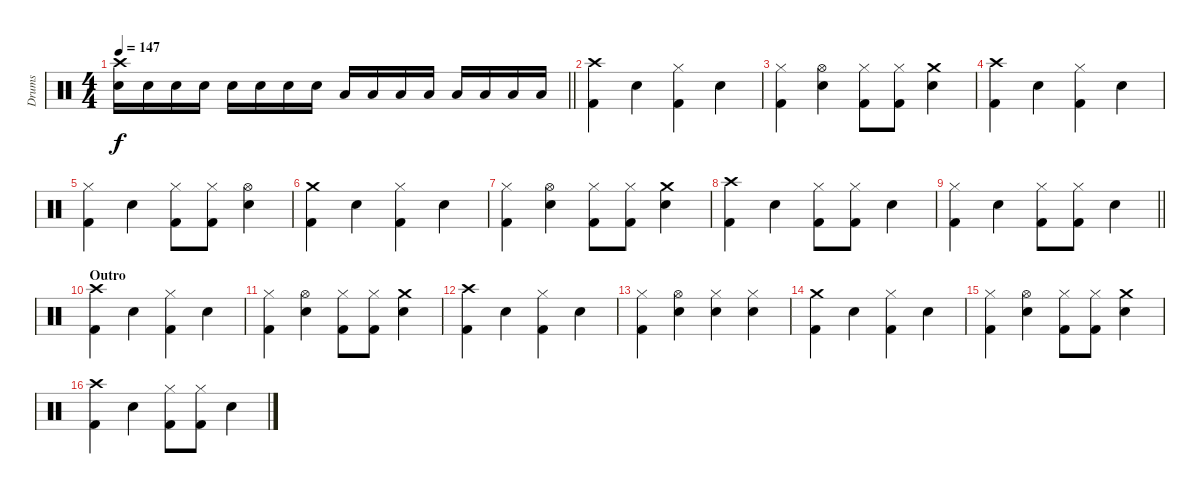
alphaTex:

\track ("Drums" "Drums") {instrument percussion}
\staff {score}
\articulation defaults
\ts (4 4)
\tempo 147
\clef neutral
\barLineRight lightlight
\ks c
("Crash high (hit)" "Snare (hit) 2").16{dy f} "Snare (hit) 2".16 "Snare (hit) 2".16 "Snare (hit) 2".16 "Snare (hit) 2".16 "Snare (hit) 2".16 "Snare (hit) 2".16 "Snare (hit) 2".16 "Low Floor Tom (hit)".16 "Low Floor Tom (hit)".16 "Low Floor Tom (hit)".16 "Low Floor Tom (hit)".16 "Low Tom (hit)".16 "Low Tom (hit)".16 "Low Tom (hit)".16 "Low Tom (hit)".16 |
("Crash high (hit)" "Kick (hit) 2").4 "Electric Snare (hit)".4 ("Hi-Hat (closed)" "Kick (hit) 2").4 "Electric Snare (hit)".4 |
("Hi-Hat (closed)" "Kick (hit) 2").4 ("Hi-Hat (open)" "Electric Snare (hit)").4 ("Hi-Hat (closed)" "Kick (hit) 2").8 ("Hi-Hat (closed)" "Kick (hit) 2").8 ("Crash medium (hit)" "Electric Snare (hit)").4 |
("Crash high (hit)" "Kick (hit) 2").4 "Electric Snare (hit)".4 ("Hi-Hat (closed)" "Kick (hit) 2").4 "Electric Snare (hit)".4 |
("Hi-Hat (closed)" "Kick (hit) 2").4 "Electric Snare (hit)".4 ("Hi-Hat (closed)" "Kick (hit) 2").8 ("Hi-Hat (closed)" "Kick (hit) 2").8 ("Hi-Hat (open)" "Electric Snare (hit)").4 |
("Crash medium (hit)" "Kick (hit) 2").4 "Electric Snare (hit)".4 ("Hi-Hat (closed)" "Kick (hit) 2").4 "Electric Snare (hit)".4 |
("Hi-Hat (closed)" "Kick (hit) 2").4 ("Hi-Hat (open)" "Electric Snare (hit)").4 ("Hi-Hat (closed)" "Kick (hit) 2").8 ("Hi-Hat (closed)" "Kick (hit) 2").8 ("Crash medium (hit)" "Electric Snare (hit)").4 |
("Crash high (hit)" "Kick (hit) 2").4 "Electric Snare (hit)".4 ("Hi-Hat (closed)" "Kick (hit) 2").8 ("Hi-Hat (closed)" "Kick (hit) 2").8 "Electric Snare (hit)".4 |
\barLineRight lightlight
("Hi-Hat (closed)" "Kick (hit) 2").4 "Electric Snare (hit)".4 ("Hi-Hat (closed)" "Kick (hit) 2").8 ("Hi-Hat (closed)" "Kick (hit) 2").8 "Electric Snare (hit)".4 |
\section ("" "Outro")
("Crash high (hit)" "Kick (hit) 2").4 "Electric Snare (hit)".4 ("Hi-Hat (closed)" "Kick (hit) 2").4 "Electric Snare (hit)".4 |
("Hi-Hat (closed)" "Kick (hit) 2").4 ("Hi-Hat (open)" "Electric Snare (hit)").4 ("Hi-Hat (closed)" "Kick (hit) 2").8 ("Hi-Hat (closed)" "Kick (hit) 2").8 ("Crash medium (hit)" "Electric Snare (hit)").4 |
("Crash high (hit)" "Kick (hit) 2").4 "Electric Snare (hit)".4 ("Hi-Hat (closed)" "Kick (hit) 2").4 "Electric Snare (hit)".4 |
("Hi-Hat (closed)" "Kick (hit) 2").4 ("Hi-Hat (open)" "Electric Snare (hit)").4 ("Hi-Hat (closed)" "Electric Snare (hit)").4 ("Hi-Hat (closed)" "Electric Snare (hit)").4 |
("Crash medium (hit)" "Kick (hit) 2").4 "Electric Snare (hit)".4 ("Hi-Hat (closed)" "Kick (hit) 2").4 "Electric Snare (hit)".4 |
("Hi-Hat (closed)" "Kick (hit) 2").4 ("Hi-Hat (open)" "Electric Snare (hit)").4 ("Hi-Hat (closed)" "Kick (hit) 2").8 ("Hi-Hat (closed)" "Kick (hit) 2").8 ("Crash medium (hit)" "Electric Snare (hit)").4 |
("Crash high (hit)" "Kick (hit) 2").4 "Electric Snare (hit)".4 ("Hi-Hat (closed)" "Kick (hit) 2").8 ("Hi-Hat (closed)" "Kick (hit) 2").8 "Electric Snare (hit)".4
